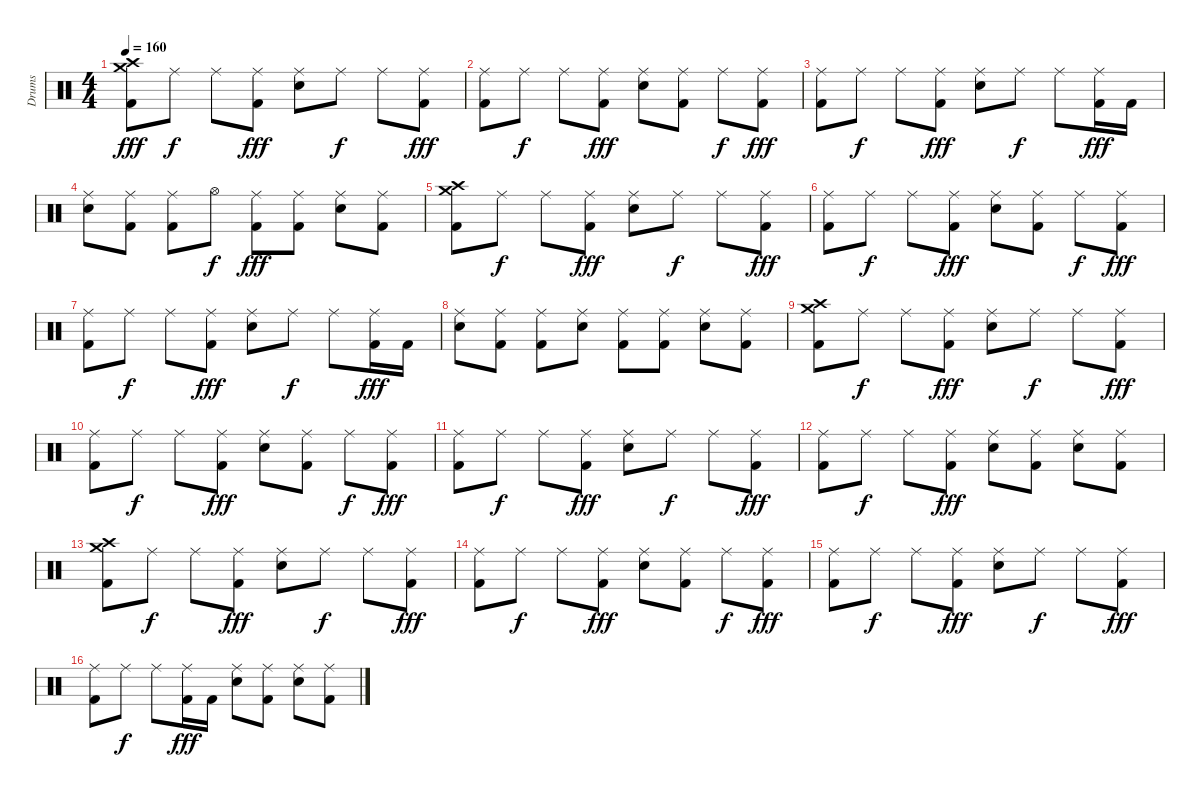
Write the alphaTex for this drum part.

\track ("Drums" "Drums") {instrument percussion}
\staff {score}
\articulation defaults
\ts (4 4)
\tempo 160
\clef neutral
\ks c
("Kick (hit) 2" "Crash medium (hit)" "Crash high (hit)").8{dy fff} "Ride (middle)".8{dy f} "Ride (middle)".8 ("Kick (hit) 2" "Ride (middle)").8{dy fff} ("Electric Snare (hit)" "Ride (middle)").8 "Ride (middle)".8{dy f} "Ride (middle)".8 ("Kick (hit) 2" "Ride (middle)").8{dy fff} |
("Kick (hit) 2" "Ride (middle)").8 "Ride (middle)".8{dy f} "Ride (middle)".8 ("Kick (hit) 2" "Ride (middle)").8{dy fff} ("Electric Snare (hit)" "Ride (middle)").8 ("Kick (hit) 2" "Ride (middle)").8 "Ride (middle)".8{dy f} ("Kick (hit) 2" "Ride (middle)").8{dy fff} |
("Kick (hit) 2" "Ride (middle)").8 "Ride (middle)".8{dy f} "Ride (middle)".8 ("Kick (hit) 2" "Ride (middle)").8{dy fff} ("Electric Snare (hit)" "Ride (middle)").8 "Ride (middle)".8{dy f} "Ride (middle)".8 ("Kick (hit) 2" "Ride (middle)").16{dy fff} "Kick (hit) 2".16 |
("Electric Snare (hit)" "Ride (middle)").8 ("Kick (hit) 2" "Ride (middle)").8 ("Kick (hit) 2" "Ride (middle)").8 "Hi-Hat (open)".8{dy f} ("Kick (hit) 2" "Ride (middle)").8{dy fff} ("Kick (hit) 2" "Ride (middle)").8 ("Electric Snare (hit)" "Ride (middle)").8 ("Kick (hit) 2" "Ride (middle)").8 |
("Kick (hit) 2" "Crash medium (hit)" "Crash high (hit)").8 "Ride (middle)".8{dy f} "Ride (middle)".8 ("Kick (hit) 2" "Ride (middle)").8{dy fff} ("Electric Snare (hit)" "Ride (middle)").8 "Ride (middle)".8{dy f} "Ride (middle)".8 ("Kick (hit) 2" "Ride (middle)").8{dy fff} |
("Kick (hit) 2" "Ride (middle)").8 "Ride (middle)".8{dy f} "Ride (middle)".8 ("Kick (hit) 2" "Ride (middle)").8{dy fff} ("Electric Snare (hit)" "Ride (middle)").8 ("Kick (hit) 2" "Ride (middle)").8 "Ride (middle)".8{dy f} ("Kick (hit) 2" "Ride (middle)").8{dy fff} |
("Kick (hit) 2" "Ride (middle)").8 "Ride (middle)".8{dy f} "Ride (middle)".8 ("Kick (hit) 2" "Ride (middle)").8{dy fff} ("Electric Snare (hit)" "Ride (middle)").8 "Ride (middle)".8{dy f} "Ride (middle)".8 ("Kick (hit) 2" "Ride (middle)").16{dy fff} "Kick (hit) 2".16 |
("Electric Snare (hit)" "Ride (middle)").8 ("Kick (hit) 2" "Ride (middle)").8 ("Kick (hit) 2" "Ride (middle)").8 ("Electric Snare (hit)" "Ride (middle)").8 ("Kick (hit) 2" "Ride (middle)").8 ("Kick (hit) 2" "Ride (middle)").8 ("Electric Snare (hit)" "Ride (middle)").8 ("Kick (hit) 2" "Ride (middle)").8 |
("Kick (hit) 2" "Crash medium (hit)" "Crash high (hit)").8 "Ride (middle)".8{dy f} "Ride (middle)".8 ("Kick (hit) 2" "Ride (middle)").8{dy fff} ("Electric Snare (hit)" "Ride (middle)").8 "Ride (middle)".8{dy f} "Ride (middle)".8 ("Kick (hit) 2" "Ride (middle)").8{dy fff} |
("Kick (hit) 2" "Ride (middle)").8 "Ride (middle)".8{dy f} "Ride (middle)".8 ("Kick (hit) 2" "Ride (middle)").8{dy fff} ("Electric Snare (hit)" "Ride (middle)").8 ("Kick (hit) 2" "Ride (middle)").8 "Ride (middle)".8{dy f} ("Kick (hit) 2" "Ride (middle)").8{dy fff} |
("Kick (hit) 2" "Ride (middle)").8 "Ride (middle)".8{dy f} "Ride (middle)".8 ("Kick (hit) 2" "Ride (middle)").8{dy fff} ("Electric Snare (hit)" "Ride (middle)").8 "Ride (middle)".8{dy f} "Ride (middle)".8 ("Kick (hit) 2" "Ride (middle)").8{dy fff} |
("Kick (hit) 2" "Ride (middle)").8 "Ride (middle)".8{dy f} "Ride (middle)".8 ("Kick (hit) 2" "Ride (middle)").8{dy fff} ("Electric Snare (hit)" "Ride (middle)").8 ("Kick (hit) 2" "Ride (middle)").8 ("Electric Snare (hit)" "Ride (middle)").8 ("Kick (hit) 2" "Ride (middle)").8 |
("Kick (hit) 2" "Crash medium (hit)" "Crash high (hit)").8 "Ride (middle)".8{dy f} "Ride (middle)".8 ("Kick (hit) 2" "Ride (middle)").8{dy fff} ("Electric Snare (hit)" "Ride (middle)").8 "Ride (middle)".8{dy f} "Ride (middle)".8 ("Kick (hit) 2" "Ride (middle)").8{dy fff} |
("Kick (hit) 2" "Ride (middle)").8 "Ride (middle)".8{dy f} "Ride (middle)".8 ("Kick (hit) 2" "Ride (middle)").8{dy fff} ("Electric Snare (hit)" "Ride (middle)").8 ("Kick (hit) 2" "Ride (middle)").8 "Ride (middle)".8{dy f} ("Kick (hit) 2" "Ride (middle)").8{dy fff} |
("Kick (hit) 2" "Ride (middle)").8 "Ride (middle)".8{dy f} "Ride (middle)".8 ("Kick (hit) 2" "Ride (middle)").8{dy fff} ("Electric Snare (hit)" "Ride (middle)").8 "Ride (middle)".8{dy f} "Ride (middle)".8 ("Kick (hit) 2" "Ride (middle)").8{dy fff} |
("Kick (hit) 2" "Ride (middle)").8 "Ride (middle)".8{dy f} "Ride (middle)".8 ("Kick (hit) 2" "Ride (middle)").16{dy fff} "Kick (hit) 2".16 ("Electric Snare (hit)" "Ride (middle)").8 ("Kick (hit) 2" "Ride (middle)").8 ("Electric Snare (hit)" "Ride (middle)").8 ("Kick (hit) 2" "Ride (middle)").8
